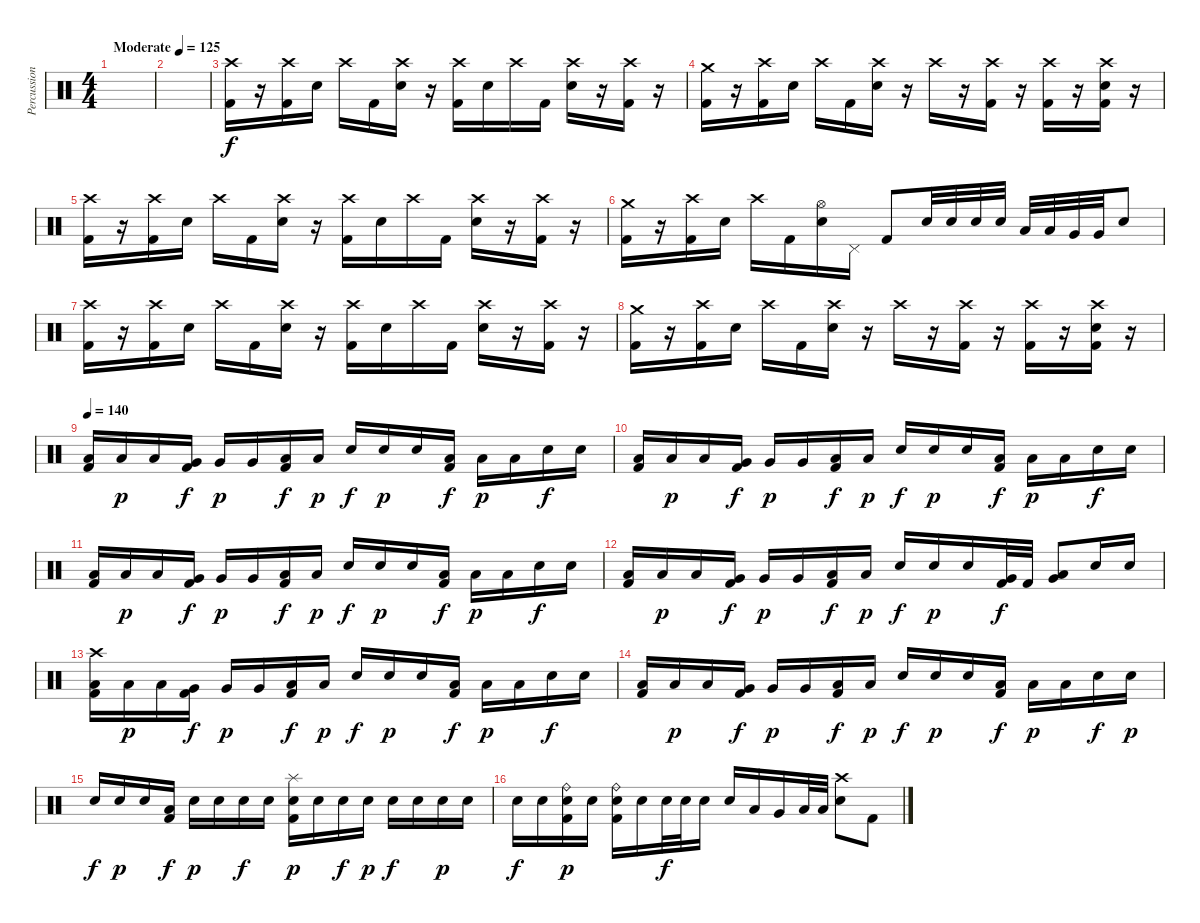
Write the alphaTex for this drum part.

\track ("Percussion" "Percussion") {instrument percussion}
\staff {score}
\articulation defaults
\ts (4 4)
\tempo (125 "Moderate")
\clef neutral
\ks c
|
|
("Crash high (hit)" "Kick (hit) 2").16 r.16 ("Crash high (hit)" "Kick (hit) 2").16 "Electric Snare (hit)".16 "Crash high (hit)".16 "Kick (hit) 2".16 ("Crash high (hit)" "Electric Snare (hit)").16 r.16 ("Crash high (hit)" "Kick (hit) 2").16 "Electric Snare (hit)".16 "Crash high (hit)".16 "Kick (hit) 2".16 ("Crash high (hit)" "Electric Snare (hit)").16 r.16 ("Crash high (hit)" "Kick (hit) 2").16 r.16 |
("Crash medium (hit)" "Kick (hit) 2").16 r.16 ("Crash high (hit)" "Kick (hit) 2").16 "Electric Snare (hit)".16 "Crash high (hit)".16 "Kick (hit) 2".16 ("Crash high (hit)" "Electric Snare (hit)").16 r.16 "Crash high (hit)".16 r.16 ("Crash high (hit)" "Kick (hit) 2").16 r.16 ("Crash high (hit)" "Kick (hit) 2").16 r.16 ("Crash high (hit)" "Electric Snare (hit)" "Kick (hit) 2").16 r.16 |
("Crash high (hit)" "Kick (hit) 2").16 r.16 ("Crash high (hit)" "Kick (hit) 2").16 "Electric Snare (hit)".16 "Crash high (hit)".16 "Kick (hit) 2".16 ("Crash high (hit)" "Electric Snare (hit)").16 r.16 ("Crash high (hit)" "Kick (hit) 2").16 "Electric Snare (hit)".16 "Crash high (hit)".16 "Kick (hit) 2".16 ("Crash high (hit)" "Electric Snare (hit)").16 r.16 ("Crash high (hit)" "Kick (hit) 2").16 r.16 |
("Crash medium (hit)" "Kick (hit) 2").16 r.16 ("Crash high (hit)" "Kick (hit) 2").16 "Electric Snare (hit)".16 "Crash high (hit)".16 "Kick (hit) 2".16 ("Hi-Hat (open)" "Electric Snare (hit)").16 "Pedal Hi-Hat (hit)".16 "Kick (hit) 2".8 "Electric Snare (hit)".32 "Electric Snare (hit)".32 "Electric Snare (hit)".32 "Electric Snare (hit)".32 "Low Tom (hit)".32 "Low Tom (hit)".32 "Very Low Tom (hit)".32 "Very Low Tom (hit)".32 "Electric Snare (hit)".8 |
("Crash high (hit)" "Kick (hit) 2").16 r.16 ("Crash high (hit)" "Kick (hit) 2").16 "Electric Snare (hit)".16 "Crash high (hit)".16 "Kick (hit) 2".16 ("Crash high (hit)" "Electric Snare (hit)").16 r.16 ("Crash high (hit)" "Kick (hit) 2").16 "Electric Snare (hit)".16 "Crash high (hit)".16 "Kick (hit) 2".16 ("Crash high (hit)" "Electric Snare (hit)").16 r.16 ("Crash high (hit)" "Kick (hit) 2").16 r.16 |
("Crash medium (hit)" "Kick (hit) 2").16 r.16 ("Crash high (hit)" "Kick (hit) 2").16 "Electric Snare (hit)".16 "Crash high (hit)".16 "Kick (hit) 2".16 ("Crash high (hit)" "Electric Snare (hit)").16 r.16 "Crash high (hit)".16 r.16 ("Crash high (hit)" "Kick (hit) 2").16 r.16 ("Crash high (hit)" "Kick (hit) 2").16 r.16 ("Crash high (hit)" "Electric Snare (hit)" "Kick (hit) 2").16 r.16 |
\tempo 140
("Low Tom (hit)" "Kick (hit) 2").16 "Low Tom (hit)".16{dy p} "Low Tom (hit)".16 ("Very Low Tom (hit)" "Kick (hit) 2").16{dy f} "Very Low Tom (hit)".16{dy p} "Very Low Tom (hit)".16 ("Low Floor Tom (hit)" "Kick (hit) 2").16{dy f} "Low Floor Tom (hit)".16{dy p} "Electric Snare (hit)".16{dy f} "Electric Snare (hit)".16{dy p} "Electric Snare (hit)".16 ("Low Floor Tom (hit)" "Kick (hit) 2").16{dy f} "Low Floor Tom (hit)".16{dy p} "Low Floor Tom (hit)".16 "Electric Snare (hit)".16{dy f} "Electric Snare (hit)".16 |
("Low Tom (hit)" "Kick (hit) 2").16 "Low Tom (hit)".16{dy p} "Low Tom (hit)".16 ("Very Low Tom (hit)" "Kick (hit) 2").16{dy f} "Very Low Tom (hit)".16{dy p} "Very Low Tom (hit)".16 ("Low Floor Tom (hit)" "Kick (hit) 2").16{dy f} "Low Floor Tom (hit)".16{dy p} "Electric Snare (hit)".16{dy f} "Electric Snare (hit)".16{dy p} "Electric Snare (hit)".16 ("Low Floor Tom (hit)" "Kick (hit) 2").16{dy f} "Low Floor Tom (hit)".16{dy p} "Low Floor Tom (hit)".16 "Electric Snare (hit)".16{dy f} "Electric Snare (hit)".16 |
("Low Tom (hit)" "Kick (hit) 2").16 "Low Tom (hit)".16{dy p} "Low Tom (hit)".16 ("Very Low Tom (hit)" "Kick (hit) 2").16{dy f} "Very Low Tom (hit)".16{dy p} "Very Low Tom (hit)".16 ("Low Floor Tom (hit)" "Kick (hit) 2").16{dy f} "Low Floor Tom (hit)".16{dy p} "Electric Snare (hit)".16{dy f} "Electric Snare (hit)".16{dy p} "Electric Snare (hit)".16 ("Low Floor Tom (hit)" "Kick (hit) 2").16{dy f} "Low Floor Tom (hit)".16{dy p} "Low Floor Tom (hit)".16 "Electric Snare (hit)".16{dy f} "Electric Snare (hit)".16 |
("Low Tom (hit)" "Kick (hit) 2").16 "Low Tom (hit)".16{dy p} "Low Tom (hit)".16 ("Very Low Tom (hit)" "Kick (hit) 2").16{dy f} "Very Low Tom (hit)".16{dy p} "Very Low Tom (hit)".16 ("Low Floor Tom (hit)" "Kick (hit) 2").16{dy f} "Low Floor Tom (hit)".16{dy p} "Electric Snare (hit)".16{dy f} "Electric Snare (hit)".16{dy p} "Electric Snare (hit)".16 ("Very Low Tom (hit)" "Kick (hit) 2").32{dy f} "Kick (hit) 2".32 ("Very Low Tom (hit)" "Low Floor Tom (hit)").8 "Electric Snare (hit)".16 "Electric Snare (hit)".16 |
("Crash high (hit)" "Low Tom (hit)" "Kick (hit) 2").16 "Low Tom (hit)".16{dy p} "Low Tom (hit)".16 ("Very Low Tom (hit)" "Kick (hit) 2").16{dy f} "Very Low Tom (hit)".16{dy p} "Very Low Tom (hit)".16 ("Low Floor Tom (hit)" "Kick (hit) 2").16{dy f} "Low Floor Tom (hit)".16{dy p} "Electric Snare (hit)".16{dy f} "Electric Snare (hit)".16{dy p} "Electric Snare (hit)".16 ("Low Floor Tom (hit)" "Kick (hit) 2").16{dy f} "Low Floor Tom (hit)".16{dy p} "Low Floor Tom (hit)".16 "Electric Snare (hit)".16{dy f} "Electric Snare (hit)".16 |
("Low Tom (hit)" "Kick (hit) 2").16 "Low Tom (hit)".16{dy p} "Low Tom (hit)".16 ("Very Low Tom (hit)" "Kick (hit) 2").16{dy f} "Very Low Tom (hit)".16{dy p} "Very Low Tom (hit)".16 ("Low Floor Tom (hit)" "Kick (hit) 2").16{dy f} "Low Floor Tom (hit)".16{dy p} "Electric Snare (hit)".16{dy f} "Electric Snare (hit)".16{dy p} "Electric Snare (hit)".16 ("Low Floor Tom (hit)" "Kick (hit) 2").16{dy f} "Low Floor Tom (hit)".16{dy p} "Low Floor Tom (hit)".16 "Electric Snare (hit)".16{dy f} "Electric Snare (hit)".16{dy p} |
"Electric Snare (hit)".16{dy f} "Electric Snare (hit)".16{dy p} "Electric Snare (hit)".16 ("Low Floor Tom (hit)" "Kick (hit) 2").16{dy f} "Electric Snare (hit)".16{dy p} "Electric Snare (hit)".16 "Electric Snare (hit)".16{dy f} "Electric Snare (hit)".16 ("Splash (hit)" "Electric Snare (hit)" "Kick (hit) 2").16{dy p} "Electric Snare (hit)".16 "Electric Snare (hit)".16{dy f} "Electric Snare (hit)".16{dy p} "Electric Snare (hit)".16{dy f} "Electric Snare (hit)".16 "Electric Snare (hit)".16{dy p} "Electric Snare (hit)".16 |
"Electric Snare (hit)".16{dy f} "Electric Snare (hit)".16 ("Ride (bell)" "Electric Snare (hit)" "Kick (hit) 2").16{dy p} "Electric Snare (hit)".16 ("Ride (bell)" "Electric Snare (hit)" "Kick (hit) 2").16 "Electric Snare (hit)".16 "Electric Snare (hit)".32{dy f} "Electric Snare (hit)".32 "Electric Snare (hit)".16 "Electric Snare (hit)".16 "Low Tom (hit)".16 "Very Low Tom (hit)".16 "Low Floor Tom (hit)".32 "Low Floor Tom (hit)".32 ("Crash high (hit)" "Electric Snare (hit)").8 "Kick (hit) 2".8
